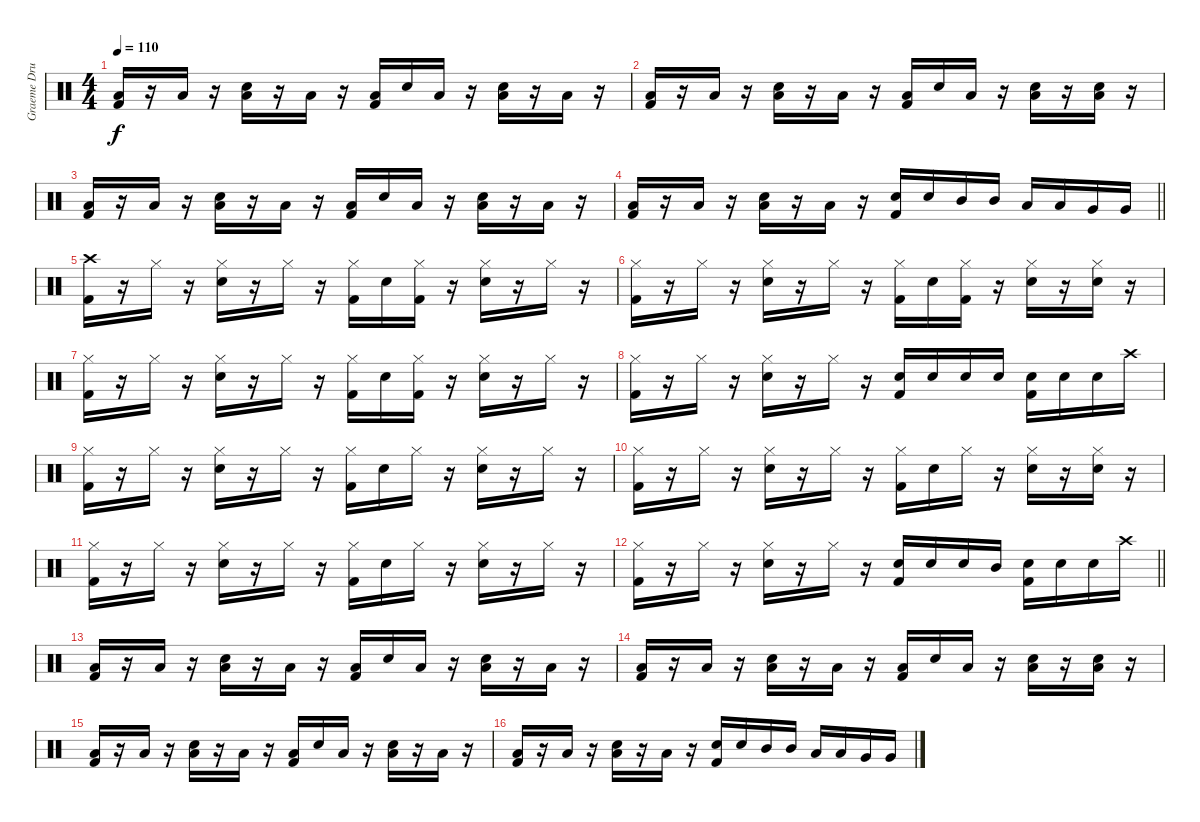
\track ("Graeme Drums" "Graeme Dru") {instrument percussion}
\staff {score}
\articulation defaults
\ts (4 4)
\tempo 110
\clef neutral
\ks c
("Kick (hit) 2" "Low Tom (hit)").16{dy f} r.16 "Low Tom (hit)".16 r.16 ("Low Tom (hit)" "Snare (hit) 2").16 r.16 "Low Tom (hit)".16 r.16 ("Kick (hit) 2" "Low Tom (hit)").16 "Snare (hit) 2".16 "Low Tom (hit)".16 r.16 ("Low Tom (hit)" "Snare (hit) 2").16 r.16 "Low Tom (hit)".16 r.16 |
("Kick (hit) 2" "Low Tom (hit)").16 r.16 "Low Tom (hit)".16 r.16 ("Low Tom (hit)" "Snare (hit) 2").16 r.16 "Low Tom (hit)".16 r.16 ("Kick (hit) 2" "Low Tom (hit)").16 "Snare (hit) 2".16 "Low Tom (hit)".16 r.16 ("Low Tom (hit)" "Snare (hit) 2").16 r.16 ("Low Tom (hit)" "Snare (hit) 2").16 r.16 |
("Kick (hit) 2" "Low Tom (hit)").16 r.16 "Low Tom (hit)".16 r.16 ("Low Tom (hit)" "Snare (hit) 2").16 r.16 "Low Tom (hit)".16 r.16 ("Kick (hit) 2" "Low Tom (hit)").16 "Snare (hit) 2".16 "Low Tom (hit)".16 r.16 ("Low Tom (hit)" "Snare (hit) 2").16 r.16 "Low Tom (hit)".16 r.16 |
\barLineRight lightlight
("Kick (hit) 2" "Low Tom (hit)").16 r.16 "Low Tom (hit)".16 r.16 ("Low Tom (hit)" "Snare (hit) 2").16 r.16 "Low Tom (hit)".16 r.16 ("Kick (hit) 2" "Snare (hit) 2").16 "Snare (hit) 2".16 "Mid Tom (hit)".16 "Mid Tom (hit)".16 "Low Tom (hit)".16 "Low Tom (hit)".16 "Very Low Tom (hit)".16 "Very Low Tom (hit)".16 |
("Kick (hit) 2" "Crash high (hit)").16 r.16 "Hi-Hat (closed)".16 r.16 ("Hi-Hat (closed)" "Snare (hit) 2").16 r.16 "Hi-Hat (closed)".16 r.16 ("Kick (hit) 2" "Hi-Hat (closed)").16 "Snare (hit) 2".16 ("Kick (hit) 2" "Hi-Hat (closed)").16 r.16 ("Hi-Hat (closed)" "Snare (hit) 2").16 r.16 "Hi-Hat (closed)".16 r.16 |
("Kick (hit) 2" "Hi-Hat (closed)").16 r.16 "Hi-Hat (closed)".16 r.16 ("Hi-Hat (closed)" "Snare (hit) 2").16 r.16 "Hi-Hat (closed)".16 r.16 ("Kick (hit) 2" "Hi-Hat (closed)").16 "Snare (hit) 2".16 ("Kick (hit) 2" "Hi-Hat (closed)").16 r.16 ("Hi-Hat (closed)" "Snare (hit) 2").16 r.16 ("Hi-Hat (closed)" "Snare (hit) 2").16 r.16 |
("Kick (hit) 2" "Hi-Hat (closed)").16 r.16 "Hi-Hat (closed)".16 r.16 ("Hi-Hat (closed)" "Snare (hit) 2").16 r.16 "Hi-Hat (closed)".16 r.16 ("Kick (hit) 2" "Hi-Hat (closed)").16 "Snare (hit) 2".16 ("Kick (hit) 2" "Hi-Hat (closed)").16 r.16 ("Hi-Hat (closed)" "Snare (hit) 2").16 r.16 "Hi-Hat (closed)".16 r.16 |
("Kick (hit) 2" "Hi-Hat (closed)").16 r.16 "Hi-Hat (closed)".16 r.16 ("Hi-Hat (closed)" "Snare (hit) 2").16 r.16 "Hi-Hat (closed)".16 r.16 ("Kick (hit) 2" "Snare (hit) 2").16 "Snare (hit) 2".16 "Snare (hit) 2".16 "Snare (hit) 2".16 ("Kick (hit) 2" "Snare (hit) 2").16 "Snare (hit) 2".16 "Snare (hit) 2".16 "Crash high (hit)".16 |
("Kick (hit) 2" "Hi-Hat (closed)").16 r.16 "Hi-Hat (closed)".16 r.16 ("Hi-Hat (closed)" "Snare (hit) 2").16 r.16 "Hi-Hat (closed)".16 r.16 ("Kick (hit) 2" "Hi-Hat (closed)").16 "Snare (hit) 2".16 "Hi-Hat (closed)".16 r.16 ("Hi-Hat (closed)" "Snare (hit) 2").16 r.16 "Hi-Hat (closed)".16 r.16 |
("Kick (hit) 2" "Hi-Hat (closed)").16 r.16 "Hi-Hat (closed)".16 r.16 ("Hi-Hat (closed)" "Snare (hit) 2").16 r.16 "Hi-Hat (closed)".16 r.16 ("Kick (hit) 2" "Hi-Hat (closed)").16 "Snare (hit) 2".16 "Hi-Hat (closed)".16 r.16 ("Hi-Hat (closed)" "Snare (hit) 2").16 r.16 ("Hi-Hat (closed)" "Snare (hit) 2").16 r.16 |
("Kick (hit) 2" "Hi-Hat (closed)").16 r.16 "Hi-Hat (closed)".16 r.16 ("Hi-Hat (closed)" "Snare (hit) 2").16 r.16 "Hi-Hat (closed)".16 r.16 ("Kick (hit) 2" "Hi-Hat (closed)").16 "Snare (hit) 2".16 "Hi-Hat (closed)".16 r.16 ("Hi-Hat (closed)" "Snare (hit) 2").16 r.16 "Hi-Hat (closed)".16 r.16 |
\barLineRight lightlight
("Kick (hit) 2" "Hi-Hat (closed)").16 r.16 "Hi-Hat (closed)".16 r.16 ("Hi-Hat (closed)" "Snare (hit) 2").16 r.16 "Hi-Hat (closed)".16 r.16 ("Kick (hit) 2" "Snare (hit) 2").16 "Snare (hit) 2".16 "Snare (hit) 2".16 "Mid Tom (hit)".16 ("Kick (hit) 2" "Snare (hit) 2").16 "Snare (hit) 2".16 "Snare (hit) 2".16 "Crash high (hit)".16 |
("Kick (hit) 2" "Low Tom (hit)").16 r.16 "Low Tom (hit)".16 r.16 ("Low Tom (hit)" "Snare (hit) 2").16 r.16 "Low Tom (hit)".16 r.16 ("Kick (hit) 2" "Low Tom (hit)").16 "Snare (hit) 2".16 "Low Tom (hit)".16 r.16 ("Low Tom (hit)" "Snare (hit) 2").16 r.16 "Low Tom (hit)".16 r.16 |
("Kick (hit) 2" "Low Tom (hit)").16 r.16 "Low Tom (hit)".16 r.16 ("Low Tom (hit)" "Snare (hit) 2").16 r.16 "Low Tom (hit)".16 r.16 ("Kick (hit) 2" "Low Tom (hit)").16 "Snare (hit) 2".16 "Low Tom (hit)".16 r.16 ("Low Tom (hit)" "Snare (hit) 2").16 r.16 ("Low Tom (hit)" "Snare (hit) 2").16 r.16 |
("Kick (hit) 2" "Low Tom (hit)").16 r.16 "Low Tom (hit)".16 r.16 ("Low Tom (hit)" "Snare (hit) 2").16 r.16 "Low Tom (hit)".16 r.16 ("Kick (hit) 2" "Low Tom (hit)").16 "Snare (hit) 2".16 "Low Tom (hit)".16 r.16 ("Low Tom (hit)" "Snare (hit) 2").16 r.16 "Low Tom (hit)".16 r.16 |
("Kick (hit) 2" "Low Tom (hit)").16 r.16 "Low Tom (hit)".16 r.16 ("Low Tom (hit)" "Snare (hit) 2").16 r.16 "Low Tom (hit)".16 r.16 ("Kick (hit) 2" "Snare (hit) 2").16 "Snare (hit) 2".16 "Mid Tom (hit)".16 "Mid Tom (hit)".16 "Low Tom (hit)".16 "Low Tom (hit)".16 "Very Low Tom (hit)".16 "Very Low Tom (hit)".16
